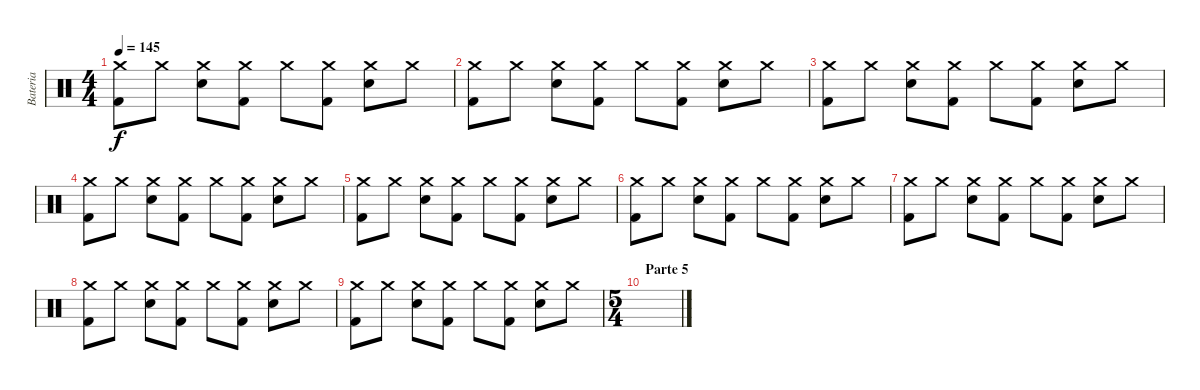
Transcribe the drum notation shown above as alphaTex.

\track ("Bateria" "Bateria") {instrument percussion}
\staff {score}
\articulation defaults
\ts (4 4)
\tempo 145
\clef neutral
\ks c
("Kick (hit) 2" "Crash medium (hit)").8{dy f} "Crash medium (hit)".8 ("Snare (hit) 2" "Crash medium (hit)").8 ("Kick (hit) 2" "Crash medium (hit)").8 "Crash medium (hit)".8 ("Kick (hit) 2" "Crash medium (hit)").8 ("Snare (hit) 2" "Crash medium (hit)").8 "Crash medium (hit)".8 |
("Kick (hit) 2" "Crash medium (hit)").8 "Crash medium (hit)".8 ("Snare (hit) 2" "Crash medium (hit)").8 ("Kick (hit) 2" "Crash medium (hit)").8 "Crash medium (hit)".8 ("Kick (hit) 2" "Crash medium (hit)").8 ("Snare (hit) 2" "Crash medium (hit)").8 "Crash medium (hit)".8 |
("Kick (hit) 2" "Crash medium (hit)").8 "Crash medium (hit)".8 ("Snare (hit) 2" "Crash medium (hit)").8 ("Kick (hit) 2" "Crash medium (hit)").8 "Crash medium (hit)".8 ("Kick (hit) 2" "Crash medium (hit)").8 ("Snare (hit) 2" "Crash medium (hit)").8 "Crash medium (hit)".8 |
("Kick (hit) 2" "Crash medium (hit)").8 "Crash medium (hit)".8 ("Snare (hit) 2" "Crash medium (hit)").8 ("Kick (hit) 2" "Crash medium (hit)").8 "Crash medium (hit)".8 ("Kick (hit) 2" "Crash medium (hit)").8 ("Snare (hit) 2" "Crash medium (hit)").8 "Crash medium (hit)".8 |
("Kick (hit) 2" "Crash medium (hit)").8 "Crash medium (hit)".8 ("Snare (hit) 2" "Crash medium (hit)").8 ("Kick (hit) 2" "Crash medium (hit)").8 "Crash medium (hit)".8 ("Kick (hit) 2" "Crash medium (hit)").8 ("Snare (hit) 2" "Crash medium (hit)").8 "Crash medium (hit)".8 |
("Kick (hit) 2" "Crash medium (hit)").8 "Crash medium (hit)".8 ("Snare (hit) 2" "Crash medium (hit)").8 ("Kick (hit) 2" "Crash medium (hit)").8 "Crash medium (hit)".8 ("Kick (hit) 2" "Crash medium (hit)").8 ("Snare (hit) 2" "Crash medium (hit)").8 "Crash medium (hit)".8 |
("Kick (hit) 2" "Crash medium (hit)").8 "Crash medium (hit)".8 ("Snare (hit) 2" "Crash medium (hit)").8 ("Kick (hit) 2" "Crash medium (hit)").8 "Crash medium (hit)".8 ("Kick (hit) 2" "Crash medium (hit)").8 ("Snare (hit) 2" "Crash medium (hit)").8 "Crash medium (hit)".8 |
("Kick (hit) 2" "Crash medium (hit)").8 "Crash medium (hit)".8 ("Snare (hit) 2" "Crash medium (hit)").8 ("Kick (hit) 2" "Crash medium (hit)").8 "Crash medium (hit)".8 ("Kick (hit) 2" "Crash medium (hit)").8 ("Snare (hit) 2" "Crash medium (hit)").8 "Crash medium (hit)".8 |
("Kick (hit) 2" "Crash medium (hit)").8 "Crash medium (hit)".8 ("Snare (hit) 2" "Crash medium (hit)").8 ("Kick (hit) 2" "Crash medium (hit)").8 "Crash medium (hit)".8 ("Kick (hit) 2" "Crash medium (hit)").8 ("Snare (hit) 2" "Crash medium (hit)").8 "Crash medium (hit)".8 |
\ts (5 4)
\section ("" "Parte 5")
